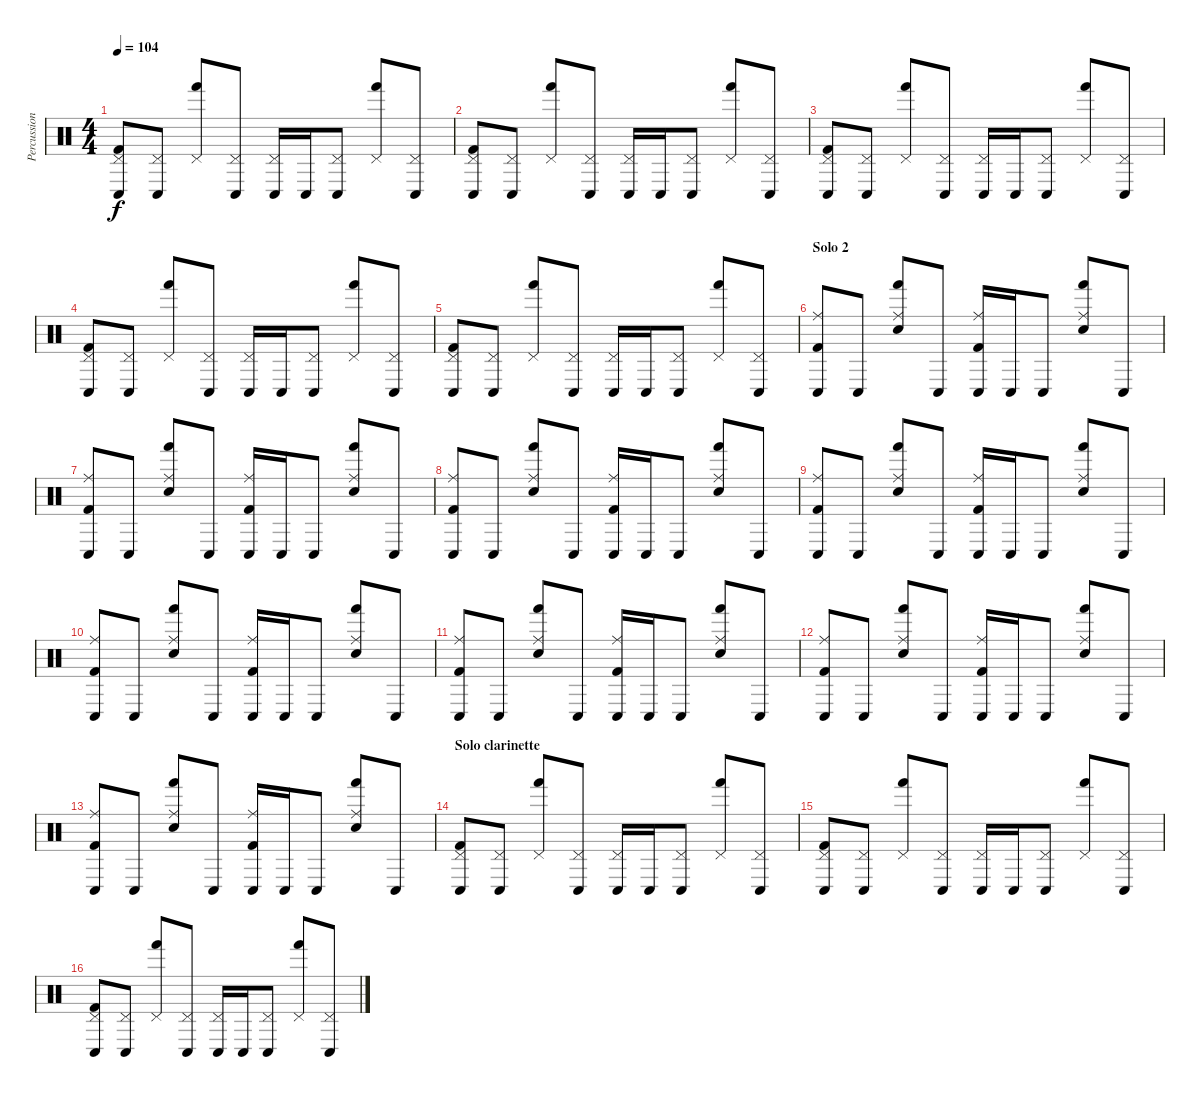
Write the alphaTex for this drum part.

\track ("Percussions" "Percussion") {instrument percussion}
\staff {score}
\articulation defaults
\ts (4 4)
\tempo 104
\clef neutral
\ks c
("Pedal Hi-Hat (hit)" "Conga low (hit)" "Kick (hit) 2").8{dy f} ("Pedal Hi-Hat (hit)" "Conga low (hit)").8 ("Pedal Hi-Hat (hit)" "Hand (hit)").8 ("Pedal Hi-Hat (hit)" "Conga low (hit)").8 ("Pedal Hi-Hat (hit)" "Conga low (hit)").16 "Conga low (hit)".16 ("Pedal Hi-Hat (hit)" "Conga low (hit)").8 ("Pedal Hi-Hat (hit)" "Hand (hit)").8 ("Pedal Hi-Hat (hit)" "Conga low (hit)").8 |
("Pedal Hi-Hat (hit)" "Conga low (hit)" "Kick (hit) 2").8 ("Pedal Hi-Hat (hit)" "Conga low (hit)").8 ("Pedal Hi-Hat (hit)" "Hand (hit)").8 ("Pedal Hi-Hat (hit)" "Conga low (hit)").8 ("Pedal Hi-Hat (hit)" "Conga low (hit)").16 "Conga low (hit)".16 ("Pedal Hi-Hat (hit)" "Conga low (hit)").8 ("Pedal Hi-Hat (hit)" "Hand (hit)").8 ("Pedal Hi-Hat (hit)" "Conga low (hit)").8 |
("Pedal Hi-Hat (hit)" "Conga low (hit)" "Kick (hit) 2").8 ("Pedal Hi-Hat (hit)" "Conga low (hit)").8 ("Pedal Hi-Hat (hit)" "Hand (hit)").8 ("Pedal Hi-Hat (hit)" "Conga low (hit)").8 ("Pedal Hi-Hat (hit)" "Conga low (hit)").16 "Conga low (hit)".16 ("Pedal Hi-Hat (hit)" "Conga low (hit)").8 ("Pedal Hi-Hat (hit)" "Hand (hit)").8 ("Pedal Hi-Hat (hit)" "Conga low (hit)").8 |
("Pedal Hi-Hat (hit)" "Conga low (hit)" "Kick (hit) 2").8 ("Pedal Hi-Hat (hit)" "Conga low (hit)").8 ("Pedal Hi-Hat (hit)" "Hand (hit)").8 ("Pedal Hi-Hat (hit)" "Conga low (hit)").8 ("Pedal Hi-Hat (hit)" "Conga low (hit)").16 "Conga low (hit)".16 ("Pedal Hi-Hat (hit)" "Conga low (hit)").8 ("Pedal Hi-Hat (hit)" "Hand (hit)").8 ("Pedal Hi-Hat (hit)" "Conga low (hit)").8 |
("Pedal Hi-Hat (hit)" "Conga low (hit)" "Kick (hit) 2").8 ("Pedal Hi-Hat (hit)" "Conga low (hit)").8 ("Pedal Hi-Hat (hit)" "Hand (hit)").8 ("Pedal Hi-Hat (hit)" "Conga low (hit)").8 ("Pedal Hi-Hat (hit)" "Conga low (hit)").16 "Conga low (hit)".16 ("Pedal Hi-Hat (hit)" "Conga low (hit)").8 ("Pedal Hi-Hat (hit)" "Hand (hit)").8 ("Pedal Hi-Hat (hit)" "Conga low (hit)").8 |
\section ("" "Solo 2")
("Ride (middle)" "Conga low (hit)" "Kick (hit) 2").8 "Conga low (hit)".8 ("Ride (middle)" "Snare (hit) 2" "Hand (hit)").8 "Conga low (hit)".8 ("Ride (middle)" "Conga low (hit)" "Kick (hit) 2").16 "Conga low (hit)".16 "Conga low (hit)".8 ("Ride (middle)" "Snare (hit) 2" "Hand (hit)").8 "Conga low (hit)".8 |
("Ride (middle)" "Conga low (hit)" "Kick (hit) 2").8 "Conga low (hit)".8 ("Ride (middle)" "Snare (hit) 2" "Hand (hit)").8 "Conga low (hit)".8 ("Ride (middle)" "Conga low (hit)" "Kick (hit) 2").16 "Conga low (hit)".16 "Conga low (hit)".8 ("Ride (middle)" "Snare (hit) 2" "Hand (hit)").8 "Conga low (hit)".8 |
("Ride (middle)" "Conga low (hit)" "Kick (hit) 2").8 "Conga low (hit)".8 ("Ride (middle)" "Snare (hit) 2" "Hand (hit)").8 "Conga low (hit)".8 ("Ride (middle)" "Conga low (hit)" "Kick (hit) 2").16 "Conga low (hit)".16 "Conga low (hit)".8 ("Ride (middle)" "Snare (hit) 2" "Hand (hit)").8 "Conga low (hit)".8 |
("Ride (middle)" "Conga low (hit)" "Kick (hit) 2").8 "Conga low (hit)".8 ("Ride (middle)" "Snare (hit) 2" "Hand (hit)").8 "Conga low (hit)".8 ("Ride (middle)" "Conga low (hit)" "Kick (hit) 2").16 "Conga low (hit)".16 "Conga low (hit)".8 ("Ride (middle)" "Snare (hit) 2" "Hand (hit)").8 "Conga low (hit)".8 |
("Ride (middle)" "Conga low (hit)" "Kick (hit) 2").8 "Conga low (hit)".8 ("Ride (middle)" "Snare (hit) 2" "Hand (hit)").8 "Conga low (hit)".8 ("Ride (middle)" "Conga low (hit)" "Kick (hit) 2").16 "Conga low (hit)".16 "Conga low (hit)".8 ("Ride (middle)" "Snare (hit) 2" "Hand (hit)").8 "Conga low (hit)".8 |
("Ride (middle)" "Conga low (hit)" "Kick (hit) 2").8 "Conga low (hit)".8 ("Ride (middle)" "Snare (hit) 2" "Hand (hit)").8 "Conga low (hit)".8 ("Ride (middle)" "Conga low (hit)" "Kick (hit) 2").16 "Conga low (hit)".16 "Conga low (hit)".8 ("Ride (middle)" "Snare (hit) 2" "Hand (hit)").8 "Conga low (hit)".8 |
("Ride (middle)" "Conga low (hit)" "Kick (hit) 2").8 "Conga low (hit)".8 ("Ride (middle)" "Snare (hit) 2" "Hand (hit)").8 "Conga low (hit)".8 ("Ride (middle)" "Conga low (hit)" "Kick (hit) 2").16 "Conga low (hit)".16 "Conga low (hit)".8 ("Ride (middle)" "Snare (hit) 2" "Hand (hit)").8 "Conga low (hit)".8 |
("Ride (middle)" "Conga low (hit)" "Kick (hit) 2").8 "Conga low (hit)".8 ("Ride (middle)" "Snare (hit) 2" "Hand (hit)").8 "Conga low (hit)".8 ("Ride (middle)" "Conga low (hit)" "Kick (hit) 2").16 "Conga low (hit)".16 "Conga low (hit)".8 ("Ride (middle)" "Snare (hit) 2" "Hand (hit)").8 "Conga low (hit)".8 |
\section ("" "Solo clarinette")
("Pedal Hi-Hat (hit)" "Conga low (hit)" "Kick (hit) 2").8 ("Pedal Hi-Hat (hit)" "Conga low (hit)").8 ("Pedal Hi-Hat (hit)" "Hand (hit)").8 ("Pedal Hi-Hat (hit)" "Conga low (hit)").8 ("Pedal Hi-Hat (hit)" "Conga low (hit)").16 "Conga low (hit)".16 ("Pedal Hi-Hat (hit)" "Conga low (hit)").8 ("Pedal Hi-Hat (hit)" "Hand (hit)").8 ("Pedal Hi-Hat (hit)" "Conga low (hit)").8 |
("Pedal Hi-Hat (hit)" "Conga low (hit)" "Kick (hit) 2").8 ("Pedal Hi-Hat (hit)" "Conga low (hit)").8 ("Pedal Hi-Hat (hit)" "Hand (hit)").8 ("Pedal Hi-Hat (hit)" "Conga low (hit)").8 ("Pedal Hi-Hat (hit)" "Conga low (hit)").16 "Conga low (hit)".16 ("Pedal Hi-Hat (hit)" "Conga low (hit)").8 ("Pedal Hi-Hat (hit)" "Hand (hit)").8 ("Pedal Hi-Hat (hit)" "Conga low (hit)").8 |
("Pedal Hi-Hat (hit)" "Conga low (hit)" "Kick (hit) 2").8 ("Pedal Hi-Hat (hit)" "Conga low (hit)").8 ("Pedal Hi-Hat (hit)" "Hand (hit)").8 ("Pedal Hi-Hat (hit)" "Conga low (hit)").8 ("Pedal Hi-Hat (hit)" "Conga low (hit)").16 "Conga low (hit)".16 ("Pedal Hi-Hat (hit)" "Conga low (hit)").8 ("Pedal Hi-Hat (hit)" "Hand (hit)").8 ("Pedal Hi-Hat (hit)" "Conga low (hit)").8
